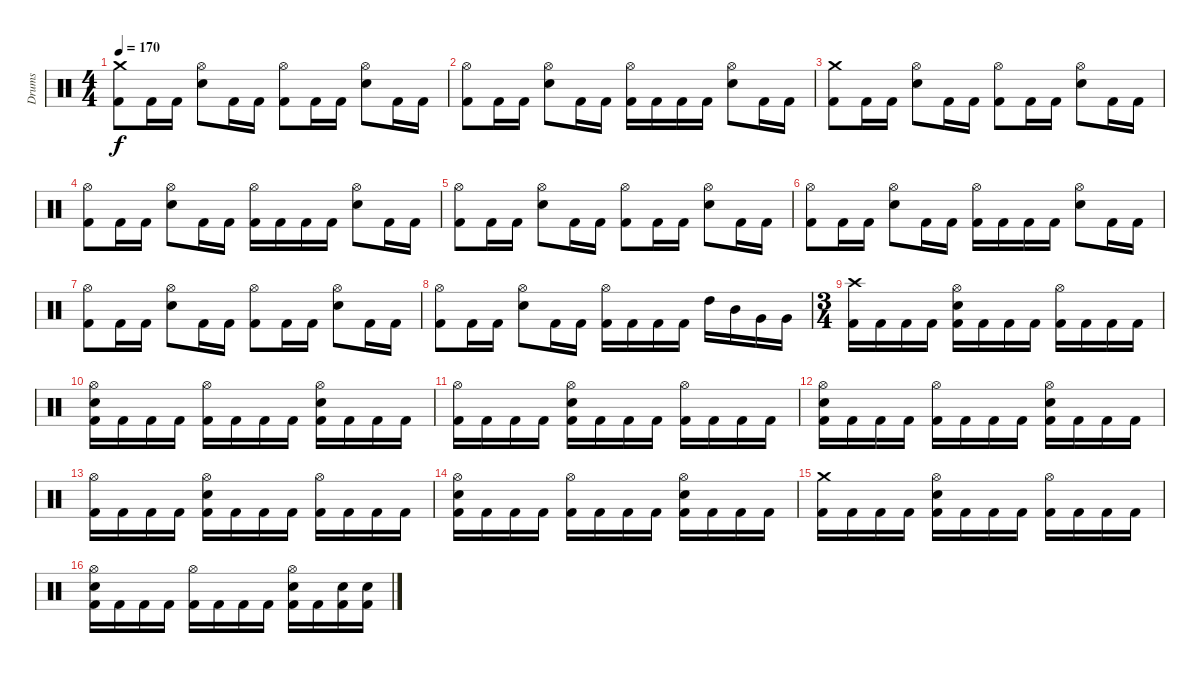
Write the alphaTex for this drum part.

\track ("Drums" "Drums") {instrument percussion}
\staff {score}
\articulation defaults
\ts (4 4)
\tempo 170
\clef neutral
\ks c
("Kick (hit) 2" "Crash medium (hit)").8{dy f} "Kick (hit) 2".16 "Kick (hit) 2".16 ("Snare (hit) 2" "Hi-Hat (open)").8 "Kick (hit) 2".16 "Kick (hit) 2".16 ("Kick (hit) 2" "Hi-Hat (open)").8 "Kick (hit) 2".16 "Kick (hit) 2".16 ("Snare (hit) 2" "Hi-Hat (open)").8 "Kick (hit) 2".16 "Kick (hit) 2".16 |
("Kick (hit) 2" "Hi-Hat (open)").8 "Kick (hit) 2".16 "Kick (hit) 2".16 ("Snare (hit) 2" "Hi-Hat (open)").8 "Kick (hit) 2".16 "Kick (hit) 2".16 ("Kick (hit) 2" "Hi-Hat (open)").16 "Kick (hit) 2".16 "Kick (hit) 2".16 "Kick (hit) 2".16 ("Snare (hit) 2" "Hi-Hat (open)").8 "Kick (hit) 2".16 "Kick (hit) 2".16 |
("Kick (hit) 2" "Crash medium (hit)").8 "Kick (hit) 2".16 "Kick (hit) 2".16 ("Snare (hit) 2" "Hi-Hat (open)").8 "Kick (hit) 2".16 "Kick (hit) 2".16 ("Kick (hit) 2" "Hi-Hat (open)").8 "Kick (hit) 2".16 "Kick (hit) 2".16 ("Snare (hit) 2" "Hi-Hat (open)").8 "Kick (hit) 2".16 "Kick (hit) 2".16 |
("Kick (hit) 2" "Hi-Hat (open)").8 "Kick (hit) 2".16 "Kick (hit) 2".16 ("Snare (hit) 2" "Hi-Hat (open)").8 "Kick (hit) 2".16 "Kick (hit) 2".16 ("Kick (hit) 2" "Hi-Hat (open)").16 "Kick (hit) 2".16 "Kick (hit) 2".16 "Kick (hit) 2".16 ("Snare (hit) 2" "Hi-Hat (open)").8 "Kick (hit) 2".16 "Kick (hit) 2".16 |
("Kick (hit) 2" "Hi-Hat (open)").8 "Kick (hit) 2".16 "Kick (hit) 2".16 ("Snare (hit) 2" "Hi-Hat (open)").8 "Kick (hit) 2".16 "Kick (hit) 2".16 ("Kick (hit) 2" "Hi-Hat (open)").8 "Kick (hit) 2".16 "Kick (hit) 2".16 ("Snare (hit) 2" "Hi-Hat (open)").8 "Kick (hit) 2".16 "Kick (hit) 2".16 |
("Kick (hit) 2" "Hi-Hat (open)").8 "Kick (hit) 2".16 "Kick (hit) 2".16 ("Snare (hit) 2" "Hi-Hat (open)").8 "Kick (hit) 2".16 "Kick (hit) 2".16 ("Kick (hit) 2" "Hi-Hat (open)").16 "Kick (hit) 2".16 "Kick (hit) 2".16 "Kick (hit) 2".16 ("Snare (hit) 2" "Hi-Hat (open)").8 "Kick (hit) 2".16 "Kick (hit) 2".16 |
("Kick (hit) 2" "Hi-Hat (open)").8 "Kick (hit) 2".16 "Kick (hit) 2".16 ("Snare (hit) 2" "Hi-Hat (open)").8 "Kick (hit) 2".16 "Kick (hit) 2".16 ("Kick (hit) 2" "Hi-Hat (open)").8 "Kick (hit) 2".16 "Kick (hit) 2".16 ("Snare (hit) 2" "Hi-Hat (open)").8 "Kick (hit) 2".16 "Kick (hit) 2".16 |
("Kick (hit) 2" "Hi-Hat (open)").8 "Kick (hit) 2".16 "Kick (hit) 2".16 ("Snare (hit) 2" "Hi-Hat (open)").8 "Kick (hit) 2".16 "Kick (hit) 2".16 ("Kick (hit) 2" "Hi-Hat (open)").16 "Kick (hit) 2".16 "Kick (hit) 2".16 "Kick (hit) 2".16 "High Tom (hit)".16 "Mid Tom (hit)".16 "Very Low Tom (hit)".16 "Very Low Tom (hit)".16 |
\ts (3 4)
\section ("" "")
("Kick (hit) 2" "Crash high (hit)").16 "Kick (hit) 2".16 "Kick (hit) 2".16 "Kick (hit) 2".16 ("Kick (hit) 2" "Snare (hit) 2" "Hi-Hat (open)").16 "Kick (hit) 2".16 "Kick (hit) 2".16 "Kick (hit) 2".16 ("Kick (hit) 2" "Hi-Hat (open)").16 "Kick (hit) 2".16 "Kick (hit) 2".16 "Kick (hit) 2".16 |
("Kick (hit) 2" "Snare (hit) 2" "Hi-Hat (open)").16 "Kick (hit) 2".16 "Kick (hit) 2".16 "Kick (hit) 2".16 ("Kick (hit) 2" "Hi-Hat (open)").16 "Kick (hit) 2".16 "Kick (hit) 2".16 "Kick (hit) 2".16 ("Kick (hit) 2" "Snare (hit) 2" "Hi-Hat (open)").16 "Kick (hit) 2".16 "Kick (hit) 2".16 "Kick (hit) 2".16 |
("Kick (hit) 2" "Hi-Hat (open)").16 "Kick (hit) 2".16 "Kick (hit) 2".16 "Kick (hit) 2".16 ("Kick (hit) 2" "Snare (hit) 2" "Hi-Hat (open)").16 "Kick (hit) 2".16 "Kick (hit) 2".16 "Kick (hit) 2".16 ("Kick (hit) 2" "Hi-Hat (open)").16 "Kick (hit) 2".16 "Kick (hit) 2".16 "Kick (hit) 2".16 |
("Kick (hit) 2" "Snare (hit) 2" "Hi-Hat (open)").16 "Kick (hit) 2".16 "Kick (hit) 2".16 "Kick (hit) 2".16 ("Kick (hit) 2" "Hi-Hat (open)").16 "Kick (hit) 2".16 "Kick (hit) 2".16 "Kick (hit) 2".16 ("Kick (hit) 2" "Snare (hit) 2" "Hi-Hat (open)").16 "Kick (hit) 2".16 "Kick (hit) 2".16 "Kick (hit) 2".16 |
("Kick (hit) 2" "Hi-Hat (open)").16 "Kick (hit) 2".16 "Kick (hit) 2".16 "Kick (hit) 2".16 ("Kick (hit) 2" "Snare (hit) 2" "Hi-Hat (open)").16 "Kick (hit) 2".16 "Kick (hit) 2".16 "Kick (hit) 2".16 ("Kick (hit) 2" "Hi-Hat (open)").16 "Kick (hit) 2".16 "Kick (hit) 2".16 "Kick (hit) 2".16 |
("Kick (hit) 2" "Snare (hit) 2" "Hi-Hat (open)").16 "Kick (hit) 2".16 "Kick (hit) 2".16 "Kick (hit) 2".16 ("Kick (hit) 2" "Hi-Hat (open)").16 "Kick (hit) 2".16 "Kick (hit) 2".16 "Kick (hit) 2".16 ("Kick (hit) 2" "Snare (hit) 2" "Hi-Hat (open)").16 "Kick (hit) 2".16 "Kick (hit) 2".16 "Kick (hit) 2".16 |
("Kick (hit) 2" "Crash medium (hit)").16 "Kick (hit) 2".16 "Kick (hit) 2".16 "Kick (hit) 2".16 ("Kick (hit) 2" "Snare (hit) 2" "Hi-Hat (open)").16 "Kick (hit) 2".16 "Kick (hit) 2".16 "Kick (hit) 2".16 ("Kick (hit) 2" "Hi-Hat (open)").16 "Kick (hit) 2".16 "Kick (hit) 2".16 "Kick (hit) 2".16 |
("Kick (hit) 2" "Snare (hit) 2" "Hi-Hat (open)").16 "Kick (hit) 2".16 "Kick (hit) 2".16 "Kick (hit) 2".16 ("Kick (hit) 2" "Hi-Hat (open)").16 "Kick (hit) 2".16 "Kick (hit) 2".16 "Kick (hit) 2".16 ("Kick (hit) 2" "Snare (hit) 2" "Hi-Hat (open)").16 "Kick (hit) 2".16 ("Kick (hit) 2" "Snare (hit) 2").16 ("Kick (hit) 2" "Snare (hit) 2").16
